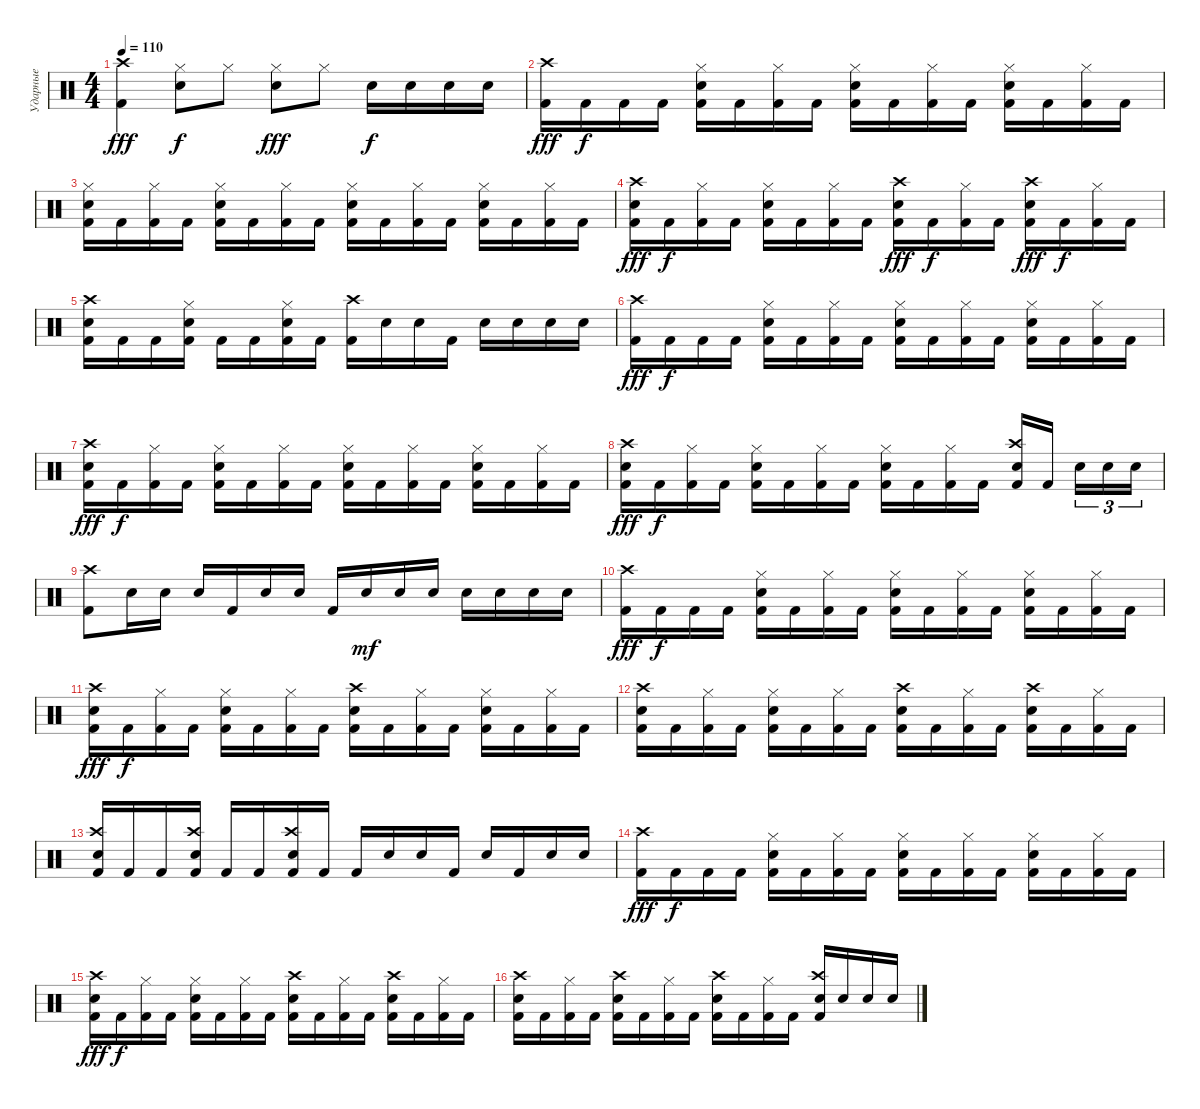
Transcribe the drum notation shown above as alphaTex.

\track ("Ударные" "Ударные") {instrument percussion}
\staff
\articulation defaults
\ts (4 4)
\tempo 110
\clef neutral
\ks c
("Kick (hit) 2" "Crash high (hit)").4{dy fff} ("Snare (hit) 2" "Hi-Hat (closed)").8{dy f} "Hi-Hat (closed)".8 ("Snare (hit) 2" "Hi-Hat (closed)").8{dy fff} "Hi-Hat (closed)".8 "Snare (hit) 2".16{dy f} "Snare (hit) 2".16 "Snare (hit) 2".16 "Snare (hit) 2".16 |
("Kick (hit) 2" "Crash high (hit)").16{dy fff} "Kick (hit) 2".16{dy f} "Kick (hit) 2".16 "Kick (hit) 2".16 ("Kick (hit) 2" "Snare (hit) 2" "Hi-Hat (closed)").16 "Kick (hit) 2".16 ("Kick (hit) 2" "Hi-Hat (closed)").16 "Kick (hit) 2".16 ("Kick (hit) 2" "Snare (hit) 2" "Hi-Hat (closed)").16 "Kick (hit) 2".16 ("Kick (hit) 2" "Hi-Hat (closed)").16 "Kick (hit) 2".16 ("Kick (hit) 2" "Snare (hit) 2" "Hi-Hat (closed)").16 "Kick (hit) 2".16 ("Kick (hit) 2" "Hi-Hat (closed)").16 "Kick (hit) 2".16 |
("Kick (hit) 2" "Snare (hit) 2" "Hi-Hat (closed)").16 "Kick (hit) 2".16 ("Kick (hit) 2" "Hi-Hat (closed)").16 "Kick (hit) 2".16 ("Kick (hit) 2" "Snare (hit) 2" "Hi-Hat (closed)").16 "Kick (hit) 2".16 ("Kick (hit) 2" "Hi-Hat (closed)").16 "Kick (hit) 2".16 ("Kick (hit) 2" "Snare (hit) 2" "Hi-Hat (closed)").16 "Kick (hit) 2".16 ("Kick (hit) 2" "Hi-Hat (closed)").16 "Kick (hit) 2".16 ("Kick (hit) 2" "Snare (hit) 2" "Hi-Hat (closed)").16 "Kick (hit) 2".16 ("Kick (hit) 2" "Hi-Hat (closed)").16 "Kick (hit) 2".16 |
("Kick (hit) 2" "Snare (hit) 2" "Crash high (hit)").16{dy fff} "Kick (hit) 2".16{dy f} ("Kick (hit) 2" "Hi-Hat (closed)").16 "Kick (hit) 2".16 ("Kick (hit) 2" "Snare (hit) 2" "Hi-Hat (closed)").16 "Kick (hit) 2".16 ("Kick (hit) 2" "Hi-Hat (closed)").16 "Kick (hit) 2".16 ("Kick (hit) 2" "Snare (hit) 2" "Crash high (hit)").16{dy fff} "Kick (hit) 2".16{dy f} ("Kick (hit) 2" "Hi-Hat (closed)").16 "Kick (hit) 2".16 ("Kick (hit) 2" "Snare (hit) 2" "Crash high (hit)").16{dy fff} "Kick (hit) 2".16{dy f} ("Kick (hit) 2" "Hi-Hat (closed)").16 "Kick (hit) 2".16 |
("Kick (hit) 2" "Snare (hit) 2" "Crash high (hit)").16 "Kick (hit) 2".16 "Kick (hit) 2".16 ("Kick (hit) 2" "Snare (hit) 2" "Hi-Hat (closed)").16 "Kick (hit) 2".16 "Kick (hit) 2".16 ("Kick (hit) 2" "Snare (hit) 2" "Hi-Hat (closed)").16 "Kick (hit) 2".16 ("Kick (hit) 2" "Crash high (hit)").16 "Snare (hit) 2".16 "Snare (hit) 2".16 "Kick (hit) 2".16 "Snare (hit) 2".16 "Snare (hit) 2".16 "Snare (hit) 2".16 "Snare (hit) 2".16 |
("Kick (hit) 2" "Crash high (hit)").16{dy fff} "Kick (hit) 2".16{dy f} "Kick (hit) 2".16 "Kick (hit) 2".16 ("Kick (hit) 2" "Snare (hit) 2" "Hi-Hat (closed)").16 "Kick (hit) 2".16 ("Kick (hit) 2" "Hi-Hat (closed)").16 "Kick (hit) 2".16 ("Kick (hit) 2" "Snare (hit) 2" "Hi-Hat (closed)").16 "Kick (hit) 2".16 ("Kick (hit) 2" "Hi-Hat (closed)").16 "Kick (hit) 2".16 ("Kick (hit) 2" "Snare (hit) 2" "Hi-Hat (closed)").16 "Kick (hit) 2".16 ("Kick (hit) 2" "Hi-Hat (closed)").16 "Kick (hit) 2".16 |
("Kick (hit) 2" "Snare (hit) 2" "Crash high (hit)").16{dy fff} "Kick (hit) 2".16{dy f} ("Kick (hit) 2" "Hi-Hat (closed)").16 "Kick (hit) 2".16 ("Kick (hit) 2" "Snare (hit) 2" "Hi-Hat (closed)").16 "Kick (hit) 2".16 ("Kick (hit) 2" "Hi-Hat (closed)").16 "Kick (hit) 2".16 ("Kick (hit) 2" "Snare (hit) 2" "Hi-Hat (closed)").16 "Kick (hit) 2".16 ("Kick (hit) 2" "Hi-Hat (closed)").16 "Kick (hit) 2".16 ("Kick (hit) 2" "Snare (hit) 2" "Hi-Hat (closed)").16 "Kick (hit) 2".16 ("Kick (hit) 2" "Hi-Hat (closed)").16 "Kick (hit) 2".16 |
("Kick (hit) 2" "Snare (hit) 2" "Crash high (hit)").16{dy fff} "Kick (hit) 2".16{dy f} ("Kick (hit) 2" "Hi-Hat (closed)").16 "Kick (hit) 2".16 ("Kick (hit) 2" "Snare (hit) 2" "Hi-Hat (closed)").16 "Kick (hit) 2".16 ("Kick (hit) 2" "Hi-Hat (closed)").16 "Kick (hit) 2".16 ("Kick (hit) 2" "Snare (hit) 2" "Hi-Hat (closed)").16 "Kick (hit) 2".16 ("Kick (hit) 2" "Hi-Hat (closed)").16 "Kick (hit) 2".16 ("Kick (hit) 2" "Snare (hit) 2" "Crash high (hit)").16 "Kick (hit) 2".16{beam splitsecondary} "Snare (hit) 2".16{tu (3 2)} "Snare (hit) 2".16{tu (3 2)} "Snare (hit) 2".16{tu (3 2)} |
("Kick (hit) 2" "Crash high (hit)").8 "Snare (hit) 2".16 "Snare (hit) 2".16 "Snare (hit) 2".16 "Kick (hit) 2".16 "Snare (hit) 2".16 "Snare (hit) 2".16 "Kick (hit) 2".16 "Snare (hit) 2".16{dy mf} "Snare (hit) 2".16 "Snare (hit) 2".16 "Snare (hit) 2".16 "Snare (hit) 2".16 "Snare (hit) 2".16 "Snare (hit) 2".16 |
("Kick (hit) 2" "Crash high (hit)").16{dy fff} "Kick (hit) 2".16{dy f} "Kick (hit) 2".16 "Kick (hit) 2".16 ("Kick (hit) 2" "Snare (hit) 2" "Hi-Hat (closed)").16 "Kick (hit) 2".16 ("Kick (hit) 2" "Hi-Hat (closed)").16 "Kick (hit) 2".16 ("Kick (hit) 2" "Snare (hit) 2" "Hi-Hat (closed)").16 "Kick (hit) 2".16 ("Kick (hit) 2" "Hi-Hat (closed)").16 "Kick (hit) 2".16 ("Kick (hit) 2" "Snare (hit) 2" "Hi-Hat (closed)").16 "Kick (hit) 2".16 ("Kick (hit) 2" "Hi-Hat (closed)").16 "Kick (hit) 2".16 |
("Kick (hit) 2" "Snare (hit) 2" "Crash high (hit)").16{dy fff} "Kick (hit) 2".16{dy f} ("Kick (hit) 2" "Hi-Hat (closed)").16 "Kick (hit) 2".16 ("Kick (hit) 2" "Snare (hit) 2" "Hi-Hat (closed)").16 "Kick (hit) 2".16 ("Kick (hit) 2" "Hi-Hat (closed)").16 "Kick (hit) 2".16 ("Kick (hit) 2" "Snare (hit) 2" "Crash high (hit)").16 "Kick (hit) 2".16 ("Kick (hit) 2" "Hi-Hat (closed)").16 "Kick (hit) 2".16 ("Kick (hit) 2" "Snare (hit) 2" "Hi-Hat (closed)").16 "Kick (hit) 2".16 ("Kick (hit) 2" "Hi-Hat (closed)").16 "Kick (hit) 2".16 |
("Kick (hit) 2" "Snare (hit) 2" "Crash high (hit)").16 "Kick (hit) 2".16 ("Kick (hit) 2" "Hi-Hat (closed)").16 "Kick (hit) 2".16 ("Kick (hit) 2" "Snare (hit) 2" "Hi-Hat (closed)").16 "Kick (hit) 2".16 ("Kick (hit) 2" "Hi-Hat (closed)").16 "Kick (hit) 2".16 ("Kick (hit) 2" "Snare (hit) 2" "Crash high (hit)").16 "Kick (hit) 2".16 ("Kick (hit) 2" "Hi-Hat (closed)").16 "Kick (hit) 2".16 ("Kick (hit) 2" "Snare (hit) 2" "Crash high (hit)").16 "Kick (hit) 2".16 ("Kick (hit) 2" "Hi-Hat (closed)").16 "Kick (hit) 2".16 |
("Kick (hit) 2" "Snare (hit) 2" "Crash high (hit)").16 "Kick (hit) 2".16 "Kick (hit) 2".16 ("Kick (hit) 2" "Snare (hit) 2" "Crash high (hit)").16 "Kick (hit) 2".16 "Kick (hit) 2".16 ("Kick (hit) 2" "Snare (hit) 2" "Crash high (hit)").16 "Kick (hit) 2".16 "Kick (hit) 2".16 "Snare (hit) 2".16 "Snare (hit) 2".16 "Kick (hit) 2".16 "Snare (hit) 2".16 "Kick (hit) 2".16 "Snare (hit) 2".16 "Snare (hit) 2".16 |
("Kick (hit) 2" "Crash high (hit)").16{dy fff} "Kick (hit) 2".16{dy f} "Kick (hit) 2".16 "Kick (hit) 2".16 ("Kick (hit) 2" "Snare (hit) 2" "Hi-Hat (closed)").16 "Kick (hit) 2".16 ("Kick (hit) 2" "Hi-Hat (closed)").16 "Kick (hit) 2".16 ("Kick (hit) 2" "Snare (hit) 2" "Hi-Hat (closed)").16 "Kick (hit) 2".16 ("Kick (hit) 2" "Hi-Hat (closed)").16 "Kick (hit) 2".16 ("Kick (hit) 2" "Snare (hit) 2" "Hi-Hat (closed)").16 "Kick (hit) 2".16 ("Kick (hit) 2" "Hi-Hat (closed)").16 "Kick (hit) 2".16 |
("Kick (hit) 2" "Snare (hit) 2" "Crash high (hit)").16{dy fff} "Kick (hit) 2".16{dy f} ("Kick (hit) 2" "Hi-Hat (closed)").16 "Kick (hit) 2".16 ("Kick (hit) 2" "Snare (hit) 2" "Hi-Hat (closed)").16 "Kick (hit) 2".16 ("Kick (hit) 2" "Hi-Hat (closed)").16 "Kick (hit) 2".16 ("Kick (hit) 2" "Snare (hit) 2" "Crash high (hit)").16 "Kick (hit) 2".16 ("Kick (hit) 2" "Hi-Hat (closed)").16 "Kick (hit) 2".16 ("Kick (hit) 2" "Snare (hit) 2" "Crash high (hit)").16 "Kick (hit) 2".16 ("Kick (hit) 2" "Hi-Hat (closed)").16 "Kick (hit) 2".16 |
("Kick (hit) 2" "Snare (hit) 2" "Crash high (hit)").16 "Kick (hit) 2".16 ("Kick (hit) 2" "Hi-Hat (closed)").16 "Kick (hit) 2".16 ("Kick (hit) 2" "Snare (hit) 2" "Crash high (hit)").16 "Kick (hit) 2".16 ("Kick (hit) 2" "Hi-Hat (closed)").16 "Kick (hit) 2".16 ("Kick (hit) 2" "Snare (hit) 2" "Crash high (hit)").16 "Kick (hit) 2".16 ("Kick (hit) 2" "Hi-Hat (closed)").16 "Kick (hit) 2".16 ("Kick (hit) 2" "Snare (hit) 2" "Crash high (hit)").16 "Snare (hit) 2".16 "Snare (hit) 2".16 "Snare (hit) 2".16
